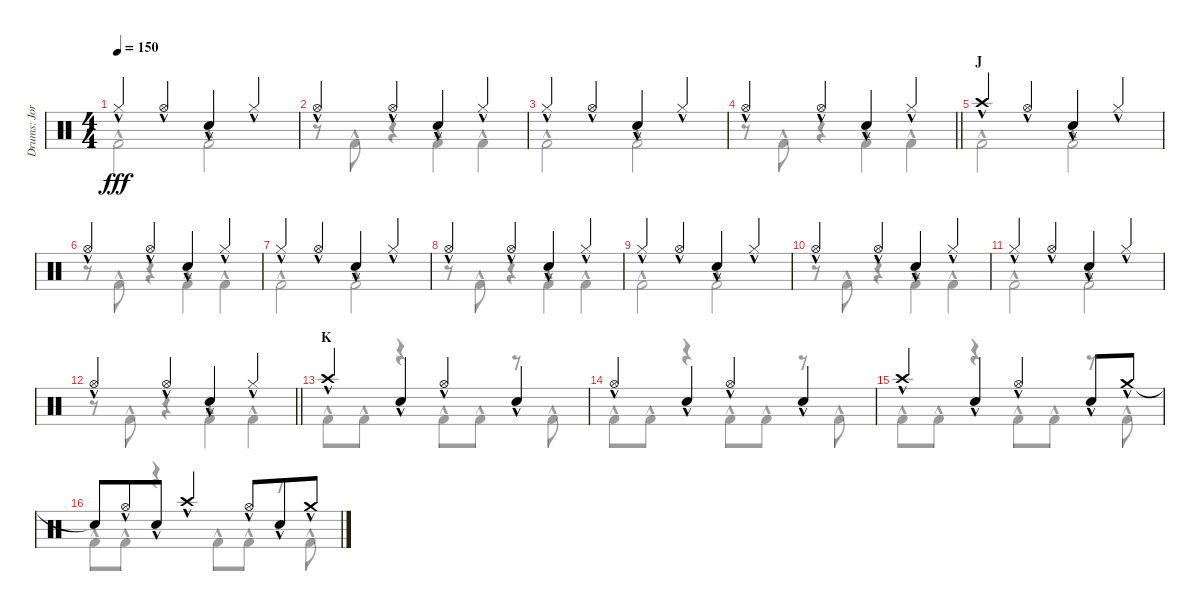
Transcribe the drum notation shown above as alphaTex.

\track ("Drums: Jorg" "Drums: Jor") {instrument percussion}
\staff {score}
\articulation defaults
\voice
\ts (4 4)
\tempo 150
\clef neutral
\ks c "Hi-Hat (closed)"{hac}.4{dy fff} "Hi-Hat (open)"{hac}.4{beam merge} "Snare (hit) 2"{hac}.4 "Hi-Hat (closed)"{hac}.4
|
"Hi-Hat (open)"{hac}.4 "Hi-Hat (open)"{hac}.4{beam merge} "Snare (hit) 2"{hac}.4 "Hi-Hat (closed)"{hac}.4 |
"Hi-Hat (closed)"{hac}.4 "Hi-Hat (open)"{hac}.4{beam merge} "Snare (hit) 2"{hac}.4 "Hi-Hat (closed)"{hac}.4 |
\barLineRight lightlight "Hi-Hat (open)"{hac}.4 "Hi-Hat (open)"{hac}.4{beam merge} "Snare (hit) 2"{hac}.4 "Hi-Hat (closed)"{hac}.4
|
\section ("" "J")
"Crash high (hit)"{hac}.4 "Hi-Hat (open)"{hac}.4{beam merge} "Snare (hit) 2"{hac}.4 "Hi-Hat (closed)"{hac}.4 |
"Hi-Hat (open)"{hac}.4 "Hi-Hat (open)"{hac}.4{beam merge} "Snare (hit) 2"{hac}.4 "Hi-Hat (closed)"{hac}.4 |
"Hi-Hat (closed)"{hac}.4 "Hi-Hat (open)"{hac}.4{beam merge} "Snare (hit) 2"{hac}.4 "Hi-Hat (closed)"{hac}.4 |
"Hi-Hat (open)"{hac}.4 "Hi-Hat (open)"{hac}.4{beam merge} "Snare (hit) 2"{hac}.4 "Hi-Hat (closed)"{hac}.4 |
"Hi-Hat (closed)"{hac}.4 "Hi-Hat (open)"{hac}.4{beam merge} "Snare (hit) 2"{hac}.4 "Hi-Hat (closed)"{hac}.4 |
"Hi-Hat (open)"{hac}.4 "Hi-Hat (open)"{hac}.4{beam merge} "Snare (hit) 2"{hac}.4 "Hi-Hat (closed)"{hac}.4 |
"Hi-Hat (closed)"{hac}.4 "Hi-Hat (open)"{hac}.4{beam merge} "Snare (hit) 2"{hac}.4 "Hi-Hat (closed)"{hac}.4 |
\barLineRight lightlight "Hi-Hat (open)"{hac}.4 "Hi-Hat (open)"{hac}.4{beam merge} "Snare (hit) 2"{hac}.4 "Hi-Hat (closed)"{hac}.4
|
\section ("" "K")
"Crash high (hit)"{hac}.4{beam merge} "Snare (hit) 2"{hac}.4 "Hi-Hat (open)"{hac}.4{beam merge} "Snare (hit) 2"{hac}.4 |
"Hi-Hat (open)"{hac}.4{beam merge} "Snare (hit) 2"{hac}.4 "Hi-Hat (open)"{hac}.4{beam merge} "Snare (hit) 2"{hac}.4 |
"Crash high (hit)"{hac}.4{beam merge} "Snare (hit) 2"{hac}.4 "Hi-Hat (open)"{hac}.4{beam merge} "Snare (hit) 2"{hac}.8 "Crash medium (hit)"{hac}.8 |
"Snare (hit)"{t}.8 "Hi-Hat (open)"{hac}.8{beam merge} "Snare (hit) 2"{hac}.8 "Crash high (hit)"{hac}.4 "Hi-Hat (open)"{hac}.8{beam merge} "Snare (hit) 2"{hac}.8 "Crash medium (hit)"{hac}.8
\voice
\clef neutral
\ottava regular
\simile none
\ks c "Kick (hit) 2"{hac}.2{dy fff} "Kick (hit) 2"{hac}.2
|
r.8 "Kick (hit) 2"{hac}.8 r.4 "Kick (hit) 2"{hac}.4 "Kick (hit) 2"{hac}.4 |
"Kick (hit) 2"{hac}.2 "Kick (hit) 2"{hac}.2 |
\barLineRight lightlight
r.8 "Kick (hit) 2"{hac}.8 r.4 "Kick (hit) 2"{hac}.4 "Kick (hit) 2"{hac}.4 |
"Kick (hit) 2"{hac}.2 "Kick (hit) 2"{hac}.2 |
r.8 "Kick (hit) 2"{hac}.8 r.4 "Kick (hit) 2"{hac}.4 "Kick (hit) 2"{hac}.4 |
"Kick (hit) 2"{hac}.2 "Kick (hit) 2"{hac}.2 |
r.8 "Kick (hit) 2"{hac}.8 r.4 "Kick (hit) 2"{hac}.4 "Kick (hit) 2"{hac}.4 |
"Kick (hit) 2"{hac}.2 "Kick (hit) 2"{hac}.2 |
r.8 "Kick (hit) 2"{hac}.8 r.4 "Kick (hit) 2"{hac}.4 "Kick (hit) 2"{hac}.4 |
"Kick (hit) 2"{hac}.2 "Kick (hit) 2"{hac}.2 |
\barLineRight lightlight
r.8 "Kick (hit) 2"{hac}.8 r.4 "Kick (hit) 2"{hac}.4 "Kick (hit) 2"{hac}.4 |
"Kick (hit) 2"{hac}.8 "Kick (hit) 2"{hac}.8 r.4 "Kick (hit) 2"{hac}.8 "Kick (hit) 2"{hac}.8 r.8 "Kick (hit) 2"{hac}.8 |
"Kick (hit) 2"{hac}.8 "Kick (hit) 2"{hac}.8 r.4 "Kick (hit) 2"{hac}.8 "Kick (hit) 2"{hac}.8 r.8 "Kick (hit) 2"{hac}.8 |
"Kick (hit) 2"{hac}.8 "Kick (hit) 2"{hac}.8 r.4 "Kick (hit) 2"{hac}.8 "Kick (hit) 2"{hac}.8 r.8 "Kick (hit) 2"{hac}.8 |
"Kick (hit) 2"{hac}.8 "Kick (hit) 2"{hac}.8 r.4 "Kick (hit) 2"{hac}.8 "Kick (hit) 2"{hac}.8 r.8 "Kick (hit) 2"{hac}.8
